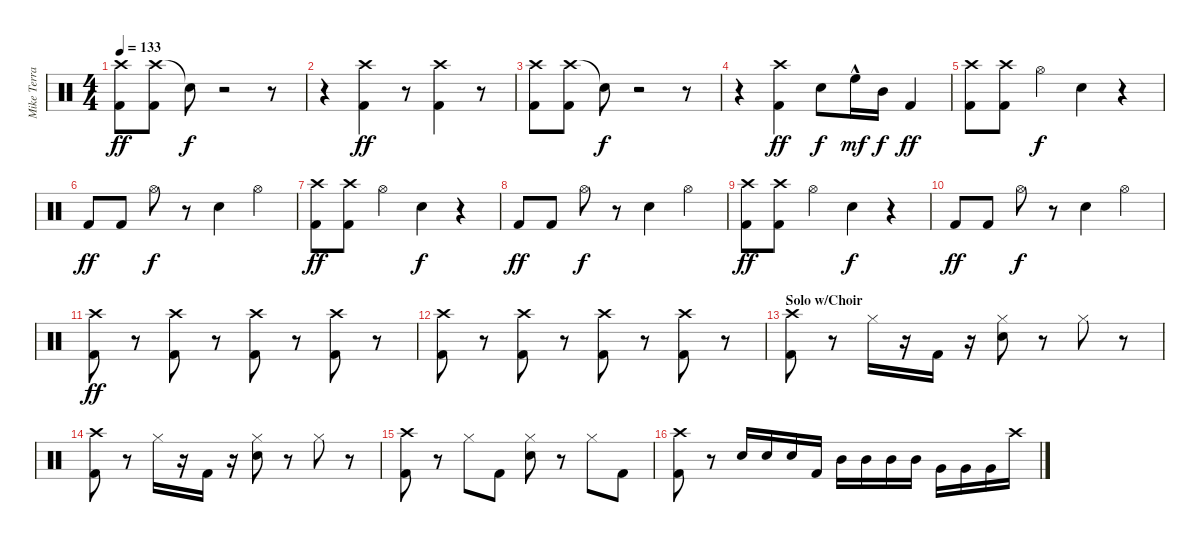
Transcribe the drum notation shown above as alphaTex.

\track ("Mike Terrana" "Mike Terra") {instrument percussion}
\staff {score}
\articulation defaults
\ts (4 4)
\tempo 133
\clef neutral
\ks c
("Crash high (hit)" "Kick (hit) 2").8{dy ff} ("Crash high (hit)" "Kick (hit) 2").8 "Snare (hit)"{t}.8{dy f} r.2 r.8 |
r.4 ("Crash high (hit)" "Kick (hit) 2").4{dy ff} r.8 ("Crash high (hit)" "Kick (hit) 2").4 r.8 |
("Crash high (hit)" "Kick (hit) 2").8 ("Crash high (hit)" "Kick (hit) 2").8 "Snare (hit)"{t}.8{dy f} r.2 r.8 |
r.4 ("Crash high (hit)" "Kick (hit) 2").4{dy ff} "Snare (hit) 2".8{dy f} "High Floor Tom (hit)"{hac}.16{dy mf} "Mid Tom (hit)".16{dy f} "Kick (hit) 2".4{dy ff} |
("Crash high (hit)" "Kick (hit) 2").8 ("Crash high (hit)" "Kick (hit) 2").8 "Hi-Hat (open)".4{dy f} "Snare (hit) 2".4 r.4 |
"Kick (hit) 2".8{dy ff} "Kick (hit) 2".8 "Hi-Hat (open)".8{dy f} r.8 "Snare (hit) 2".4 "Hi-Hat (open)".4 |
("Crash high (hit)" "Kick (hit) 2").8{dy ff} ("Crash high (hit)" "Kick (hit) 2").8 "Hi-Hat (open)".4 "Snare (hit) 2".4{dy f} r.4 |
"Kick (hit) 2".8{dy ff} "Kick (hit) 2".8 "Hi-Hat (open)".8{dy f} r.8 "Snare (hit) 2".4 "Hi-Hat (open)".4 |
("Crash high (hit)" "Kick (hit) 2").8{dy ff} ("Crash high (hit)" "Kick (hit) 2").8 "Hi-Hat (open)".4 "Snare (hit) 2".4{dy f} r.4 |
"Kick (hit) 2".8{dy ff} "Kick (hit) 2".8 "Hi-Hat (open)".8{dy f} r.8 "Snare (hit) 2".4 "Hi-Hat (open)".4 |
("Crash high (hit)" "Kick (hit) 2").8{dy ff} r.8 ("Crash high (hit)" "Kick (hit) 2").8 r.8 ("Crash high (hit)" "Kick (hit) 2").8 r.8 ("Crash high (hit)" "Kick (hit) 2").8 r.8 |
("Crash high (hit)" "Kick (hit) 2").8 r.8 ("Crash high (hit)" "Kick (hit) 2").8 r.8 ("Crash high (hit)" "Kick (hit) 2").8 r.8 ("Crash high (hit)" "Kick (hit) 2").8 r.8 |
\section ("" "Solo w/Choir")
("Crash high (hit)" "Kick (hit) 2").8 r.8 "Hi-Hat (closed)".16 r.16 "Kick (hit) 2".16 r.16 ("Hi-Hat (closed)" "Snare (hit) 2").8 r.8 "Hi-Hat (closed)".8 r.8 |
("Crash high (hit)" "Kick (hit) 2").8 r.8 "Hi-Hat (closed)".16 r.16 "Kick (hit) 2".16 r.16 ("Hi-Hat (closed)" "Snare (hit) 2").8 r.8 "Hi-Hat (closed)".8 r.8 |
("Crash high (hit)" "Kick (hit) 2").8 r.8 "Hi-Hat (closed)".8 "Kick (hit) 2".8 ("Hi-Hat (closed)" "Snare (hit) 2").8 r.8 "Hi-Hat (closed)".8 "Kick (hit) 2".8 |
("Crash high (hit)" "Kick (hit) 2").8 r.8 "Snare (hit) 2".16 "Snare (hit) 2".16 "Snare (hit) 2".16 "Kick (hit) 2".16 "Mid Tom (hit)".16 "Mid Tom (hit)".16 "Mid Tom (hit)".16 "Mid Tom (hit)".16 "Very Low Tom (hit)".16 "Very Low Tom (hit)".16 "Very Low Tom (hit)".16 "Crash high (hit)".16
